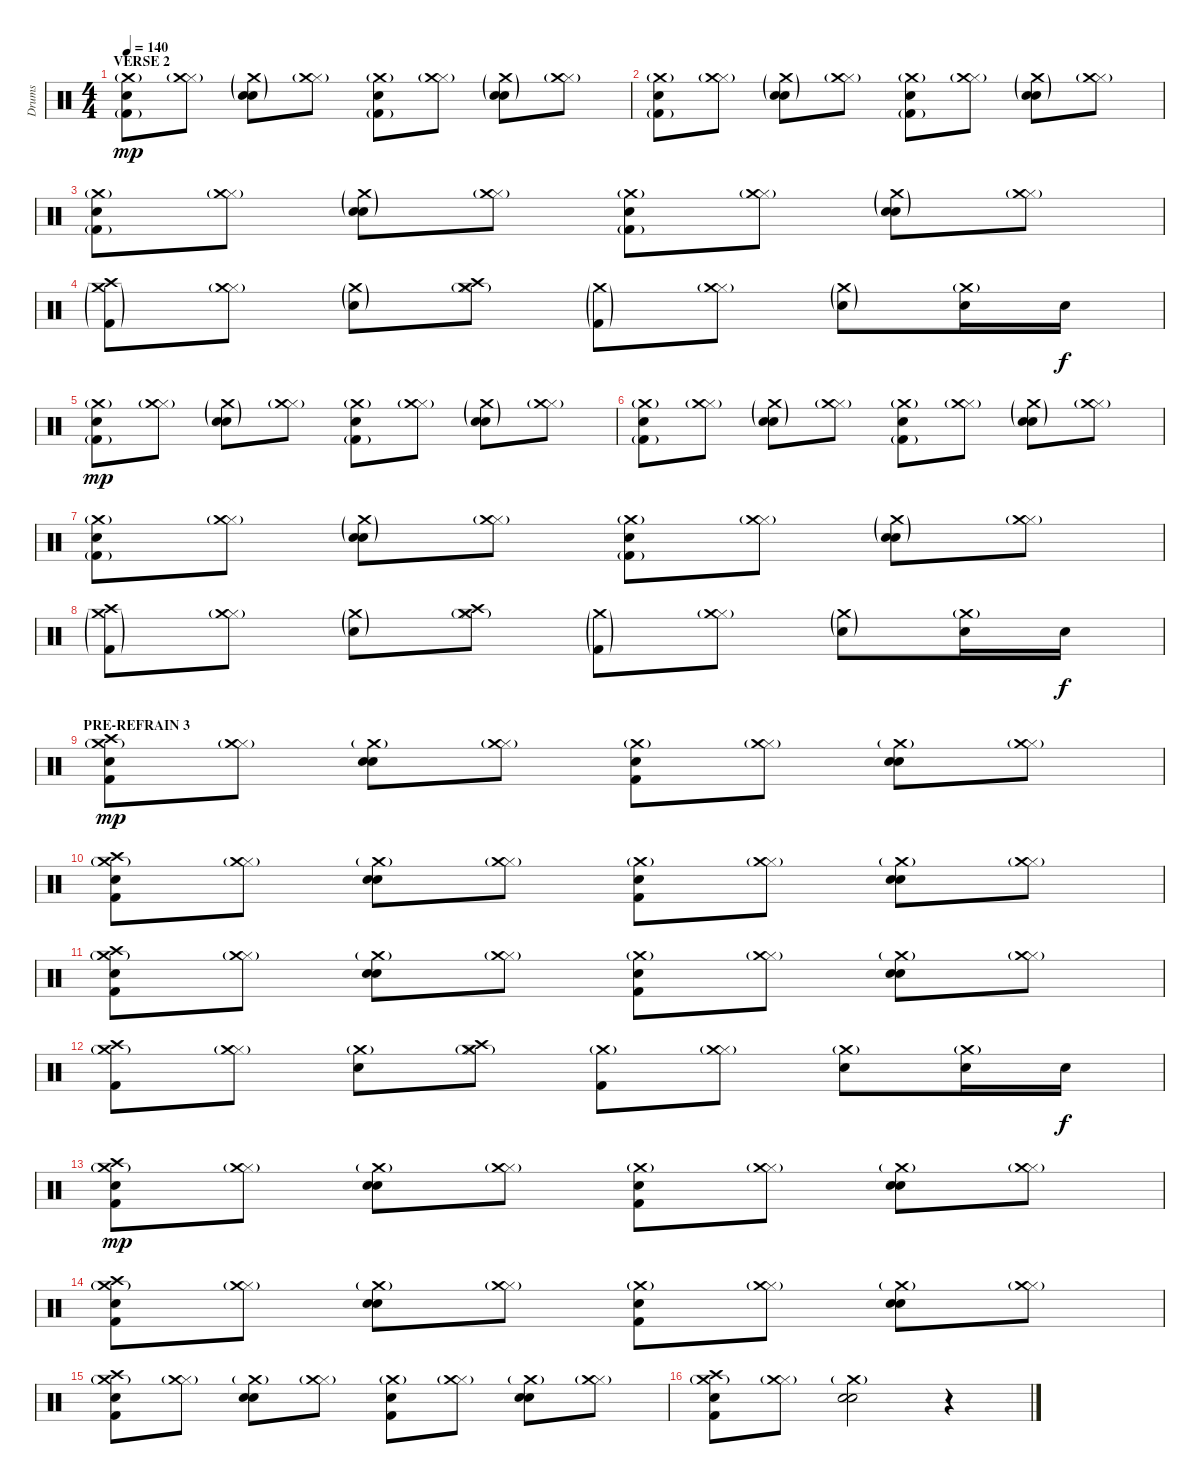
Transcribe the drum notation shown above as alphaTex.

\track ("Drums" "Drums") {instrument percussion}
\staff {score}
\articulation defaults
\ts (4 4)
\section ("" "VERSE 2")
\tempo 140
\clef neutral
\ks c
("Kick (hit) 2"{g} "Hand Clap (hit)" "Crash medium (hit)"{g}).8{dy mp} ("Hi-Hat (closed)" "Crash medium (hit)"{g}).8 ("Electric Snare (hit)"{g} "Hand Clap (hit)" "Crash medium (hit)"{g}).8 ("Hi-Hat (closed)" "Crash medium (hit)"{g}).8 ("Kick (hit) 2"{g} "Hand Clap (hit)" "Crash medium (hit)"{g}).8 ("Hi-Hat (closed)" "Crash medium (hit)"{g}).8 ("Electric Snare (hit)"{g} "Hand Clap (hit)" "Crash medium (hit)"{g}).8 ("Hi-Hat (closed)" "Crash medium (hit)"{g}).8 |
("Kick (hit) 2"{g} "Hand Clap (hit)" "Crash medium (hit)"{g}).8 ("Hi-Hat (closed)" "Crash medium (hit)"{g}).8 ("Electric Snare (hit)"{g} "Hand Clap (hit)" "Crash medium (hit)"{g}).8 ("Hi-Hat (closed)" "Crash medium (hit)"{g}).8 ("Kick (hit) 2"{g} "Hand Clap (hit)" "Crash medium (hit)"{g}).8 ("Hi-Hat (closed)" "Crash medium (hit)"{g}).8 ("Electric Snare (hit)"{g} "Hand Clap (hit)" "Crash medium (hit)"{g}).8 ("Hi-Hat (closed)" "Crash medium (hit)"{g}).8 |
("Kick (hit) 2"{g} "Hand Clap (hit)" "Crash medium (hit)"{g}).8 ("Hi-Hat (closed)" "Crash medium (hit)"{g}).8 ("Electric Snare (hit)"{g} "Hand Clap (hit)" "Crash medium (hit)"{g}).8 ("Hi-Hat (closed)" "Crash medium (hit)"{g}).8 ("Kick (hit) 2"{g} "Hand Clap (hit)" "Crash medium (hit)"{g}).8 ("Hi-Hat (closed)" "Crash medium (hit)"{g}).8 ("Electric Snare (hit)"{g} "Hand Clap (hit)" "Crash medium (hit)"{g}).8 ("Hi-Hat (closed)" "Crash medium (hit)"{g}).8 |
("Kick (hit) 2"{g} "Crash medium (hit)"{g} "Crash high (hit)").8 ("Hi-Hat (closed)" "Crash medium (hit)"{g}).8 ("Electric Snare (hit)"{g} "Crash medium (hit)"{g}).8 ("Hi-Hat (closed)" "Crash medium (hit)"{g} "Crash high (hit)").8 ("Kick (hit) 2"{g} "Crash medium (hit)"{g}).8 ("Hi-Hat (closed)" "Crash medium (hit)"{g}).8 ("Electric Snare (hit)"{g} "Crash medium (hit)"{g}).8 ("Electric Snare (hit)" "Crash medium (hit)"{g}).16 "Electric Snare (hit)".16{dy f} |
("Kick (hit) 2"{g} "Hand Clap (hit)" "Crash medium (hit)"{g}).8{dy mp} ("Hi-Hat (closed)" "Crash medium (hit)"{g}).8 ("Electric Snare (hit)"{g} "Hand Clap (hit)" "Crash medium (hit)"{g}).8 ("Hi-Hat (closed)" "Crash medium (hit)"{g}).8 ("Kick (hit) 2"{g} "Hand Clap (hit)" "Crash medium (hit)"{g}).8 ("Hi-Hat (closed)" "Crash medium (hit)"{g}).8 ("Electric Snare (hit)"{g} "Hand Clap (hit)" "Crash medium (hit)"{g}).8 ("Hi-Hat (closed)" "Crash medium (hit)"{g}).8 |
("Kick (hit) 2"{g} "Hand Clap (hit)" "Crash medium (hit)"{g}).8 ("Hi-Hat (closed)" "Crash medium (hit)"{g}).8 ("Electric Snare (hit)"{g} "Hand Clap (hit)" "Crash medium (hit)"{g}).8 ("Hi-Hat (closed)" "Crash medium (hit)"{g}).8 ("Kick (hit) 2"{g} "Hand Clap (hit)" "Crash medium (hit)"{g}).8 ("Hi-Hat (closed)" "Crash medium (hit)"{g}).8 ("Electric Snare (hit)"{g} "Hand Clap (hit)" "Crash medium (hit)"{g}).8 ("Hi-Hat (closed)" "Crash medium (hit)"{g}).8 |
("Kick (hit) 2"{g} "Hand Clap (hit)" "Crash medium (hit)"{g}).8 ("Hi-Hat (closed)" "Crash medium (hit)"{g}).8 ("Electric Snare (hit)"{g} "Hand Clap (hit)" "Crash medium (hit)"{g}).8 ("Hi-Hat (closed)" "Crash medium (hit)"{g}).8 ("Kick (hit) 2"{g} "Hand Clap (hit)" "Crash medium (hit)"{g}).8 ("Hi-Hat (closed)" "Crash medium (hit)"{g}).8 ("Electric Snare (hit)"{g} "Hand Clap (hit)" "Crash medium (hit)"{g}).8 ("Hi-Hat (closed)" "Crash medium (hit)"{g}).8 |
("Kick (hit) 2"{g} "Crash medium (hit)"{g} "Crash high (hit)").8 ("Hi-Hat (closed)" "Crash medium (hit)"{g}).8 ("Electric Snare (hit)"{g} "Crash medium (hit)"{g}).8 ("Hi-Hat (closed)" "Crash medium (hit)"{g} "Crash high (hit)").8 ("Kick (hit) 2"{g} "Crash medium (hit)"{g}).8 ("Hi-Hat (closed)" "Crash medium (hit)"{g}).8 ("Electric Snare (hit)"{g} "Crash medium (hit)"{g}).8 ("Electric Snare (hit)" "Crash medium (hit)"{g}).16 "Electric Snare (hit)".16{dy f} |
\section ("" "PRE-REFRAIN 3")
("Kick (hit) 2" "Hand Clap (hit)" "Crash medium (hit)"{g} "Crash high (hit)").8{dy mp} ("Hi-Hat (closed)" "Crash medium (hit)"{g}).8 ("Electric Snare (hit)" "Hand Clap (hit)" "Crash medium (hit)"{g}).8 ("Hi-Hat (closed)" "Crash medium (hit)"{g}).8 ("Kick (hit) 2" "Hand Clap (hit)" "Crash medium (hit)"{g}).8 ("Hi-Hat (closed)" "Crash medium (hit)"{g}).8 ("Electric Snare (hit)" "Hand Clap (hit)" "Crash medium (hit)"{g}).8 ("Hi-Hat (closed)" "Crash medium (hit)"{g}).8 |
("Kick (hit) 2" "Hand Clap (hit)" "Crash medium (hit)"{g} "Crash high (hit)").8 ("Hi-Hat (closed)" "Crash medium (hit)"{g}).8 ("Electric Snare (hit)" "Hand Clap (hit)" "Crash medium (hit)"{g}).8 ("Hi-Hat (closed)" "Crash medium (hit)"{g}).8 ("Kick (hit) 2" "Hand Clap (hit)" "Crash medium (hit)"{g}).8 ("Hi-Hat (closed)" "Crash medium (hit)"{g}).8 ("Electric Snare (hit)" "Hand Clap (hit)" "Crash medium (hit)"{g}).8 ("Hi-Hat (closed)" "Crash medium (hit)"{g}).8 |
("Kick (hit) 2" "Hand Clap (hit)" "Crash medium (hit)"{g} "Crash high (hit)").8 ("Hi-Hat (closed)" "Crash medium (hit)"{g}).8 ("Electric Snare (hit)" "Hand Clap (hit)" "Crash medium (hit)"{g}).8 ("Hi-Hat (closed)" "Crash medium (hit)"{g}).8 ("Kick (hit) 2" "Hand Clap (hit)" "Crash medium (hit)"{g}).8 ("Hi-Hat (closed)" "Crash medium (hit)"{g}).8 ("Electric Snare (hit)" "Hand Clap (hit)" "Crash medium (hit)"{g}).8 ("Hi-Hat (closed)" "Crash medium (hit)"{g}).8 |
("Kick (hit) 2" "Crash medium (hit)"{g} "Crash high (hit)").8 ("Hi-Hat (closed)" "Crash medium (hit)"{g}).8 ("Electric Snare (hit)" "Crash medium (hit)"{g}).8 ("Hi-Hat (closed)" "Crash medium (hit)"{g} "Crash high (hit)").8 ("Kick (hit) 2" "Crash medium (hit)"{g}).8 ("Hi-Hat (closed)" "Crash medium (hit)"{g}).8 ("Electric Snare (hit)" "Crash medium (hit)"{g}).8 ("Electric Snare (hit)" "Crash medium (hit)"{g}).16 "Electric Snare (hit)".16{dy f} |
("Kick (hit) 2" "Hand Clap (hit)" "Crash medium (hit)"{g} "Crash high (hit)").8{dy mp} ("Hi-Hat (closed)" "Crash medium (hit)"{g}).8 ("Electric Snare (hit)" "Hand Clap (hit)" "Crash medium (hit)"{g}).8 ("Hi-Hat (closed)" "Crash medium (hit)"{g}).8 ("Kick (hit) 2" "Hand Clap (hit)" "Crash medium (hit)"{g}).8 ("Hi-Hat (closed)" "Crash medium (hit)"{g}).8 ("Electric Snare (hit)" "Hand Clap (hit)" "Crash medium (hit)"{g}).8 ("Hi-Hat (closed)" "Crash medium (hit)"{g}).8 |
("Kick (hit) 2" "Hand Clap (hit)" "Crash medium (hit)"{g} "Crash high (hit)").8 ("Hi-Hat (closed)" "Crash medium (hit)"{g}).8 ("Electric Snare (hit)" "Hand Clap (hit)" "Crash medium (hit)"{g}).8 ("Hi-Hat (closed)" "Crash medium (hit)"{g}).8 ("Kick (hit) 2" "Hand Clap (hit)" "Crash medium (hit)"{g}).8 ("Hi-Hat (closed)" "Crash medium (hit)"{g}).8 ("Electric Snare (hit)" "Hand Clap (hit)" "Crash medium (hit)"{g}).8 ("Hi-Hat (closed)" "Crash medium (hit)"{g}).8 |
("Kick (hit) 2" "Hand Clap (hit)" "Crash medium (hit)"{g} "Crash high (hit)").8 ("Hi-Hat (closed)" "Crash medium (hit)"{g}).8 ("Electric Snare (hit)" "Hand Clap (hit)" "Crash medium (hit)"{g}).8 ("Hi-Hat (closed)" "Crash medium (hit)"{g}).8 ("Kick (hit) 2" "Hand Clap (hit)" "Crash medium (hit)"{g}).8 ("Hi-Hat (closed)" "Crash medium (hit)"{g}).8 ("Electric Snare (hit)" "Hand Clap (hit)" "Crash medium (hit)"{g}).8 ("Hi-Hat (closed)" "Crash medium (hit)"{g}).8 |
("Kick (hit) 2" "Hand Clap (hit)" "Crash medium (hit)"{g} "Crash high (hit)").8 ("Hi-Hat (closed)" "Crash medium (hit)"{g}).8 ("Electric Snare (hit)" "Hand Clap (hit)" "Crash medium (hit)"{g}).2 r.4
